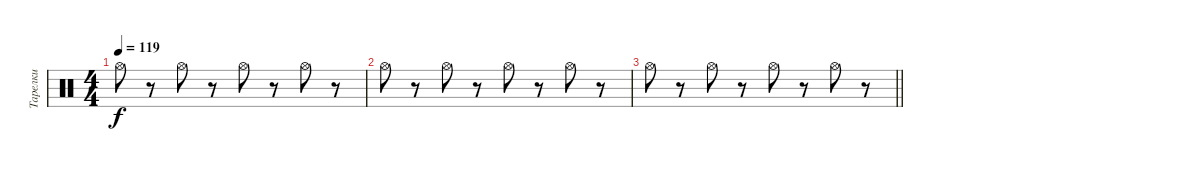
\track ("Тарелки" "Тарелки") {instrument percussion}
\staff {score}
\articulation defaults
\ts (4 4)
\tempo 119
\clef neutral
\ks c "Hi-Hat (open)".8{dy f}
r.8 "Hi-Hat (open)".8 r.8 "Hi-Hat (open)".8 r.8 "Hi-Hat (open)".8 r.8 |
"Hi-Hat (open)".8 r.8 "Hi-Hat (open)".8 r.8 "Hi-Hat (open)".8 r.8 "Hi-Hat (open)".8 r.8 |
\barLineRight lightlight "Hi-Hat (open)".8
r.8 "Hi-Hat (open)".8 r.8 "Hi-Hat (open)".8 r.8 "Hi-Hat (open)".8 r.8
